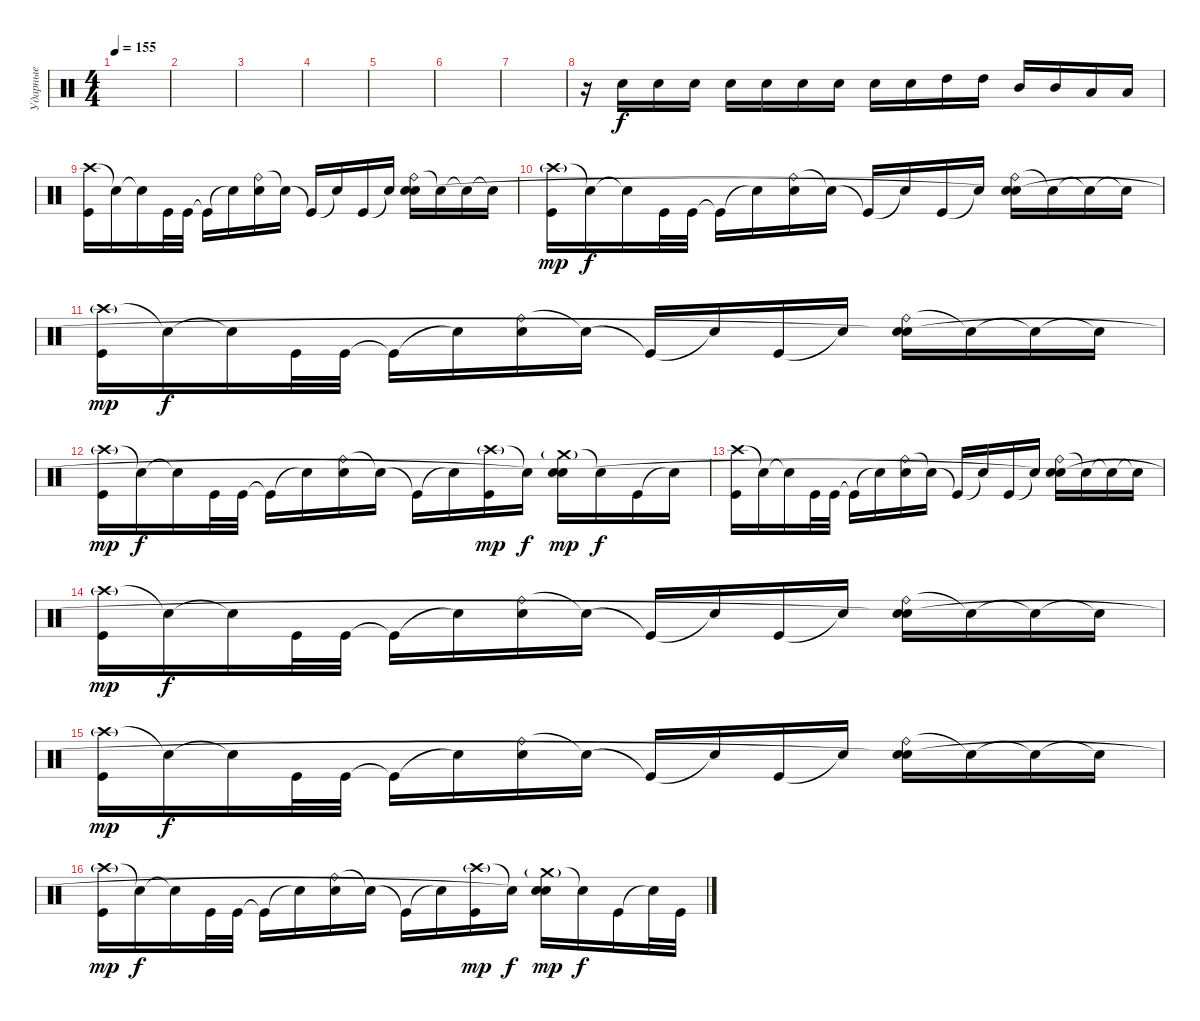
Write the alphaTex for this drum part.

\track ("Ударные" "Ударные") {instrument percussion}
\staff {score}
\articulation defaults
\ts (4 4)
\tempo 155
\clef neutral
\ks c
|
|
|
|
|
|
|
r.16 "Electric Snare (hit)".16 "Electric Snare (hit)".16 "Electric Snare (hit)".16 "Electric Snare (hit)".16 "Electric Snare (hit)".16 "Electric Snare (hit)".16 "Electric Snare (hit)".16 "Electric Snare (hit)".16 "Electric Snare (hit)".16 "High Tom (hit)".16 "High Tom (hit)".16 "Mid Tom (hit)".16 "Mid Tom (hit)".16 "Low Tom (hit)".16 "Low Tom (hit)".16 |
("Crash high (hit)" "Kick (hit)").16 "Snare (hit)"{t}.16 "Snare (hit)"{t}.16 "Kick (hit)".32 "Kick (hit)".32 "Kick (hit)"{t}.16 "Snare (hit)"{t}.16 ("Ride (bell)" "Electric Snare (hit)").16 "Snare (hit)"{t}.16 "Kick (hit)"{t}.16 "Snare (hit)"{t}.16 "Kick (hit)".16 "Snare (hit)"{t}.16 ("Ride (bell)" "Electric Snare (hit)" "Snare (hit)").16 "Snare (hit)"{t}.16 "Snare (hit)"{t}.16 "Snare (hit)"{t}.16 |
("Crash high (hit)"{g} "Kick (hit)").16{dy mp} "Snare (hit)"{t}.16{dy f} "Snare (hit)"{t}.16 "Kick (hit)".32 "Kick (hit)".32 "Kick (hit)"{t}.16 "Snare (hit)"{t}.16 ("Ride (bell)" "Electric Snare (hit)").16 "Snare (hit)"{t}.16 "Kick (hit)"{t}.16 "Snare (hit)"{t}.16 "Kick (hit)".16 "Snare (hit)"{t}.16 ("Ride (bell)" "Electric Snare (hit)" "Snare (hit)"{t}).16 "Snare (hit)"{t}.16 "Snare (hit)"{t}.16 "Snare (hit)"{t}.16 |
("Crash high (hit)"{g} "Kick (hit)").16{dy mp} "Snare (hit)"{t}.16{dy f} "Snare (hit)"{t}.16 "Kick (hit)".32 "Kick (hit)".32 "Kick (hit)"{t}.16 "Snare (hit)"{t}.16 ("Ride (bell)" "Electric Snare (hit)").16 "Snare (hit)"{t}.16 "Kick (hit)"{t}.16 "Snare (hit)"{t}.16 "Kick (hit)".16 "Snare (hit)"{t}.16 ("Ride (bell)" "Electric Snare (hit)" "Snare (hit)"{t}).16 "Snare (hit)"{t}.16 "Snare (hit)"{t}.16 "Snare (hit)"{t}.16 |
("Crash high (hit)"{g} "Kick (hit)").16{dy mp} "Snare (hit)"{t}.16{dy f} "Snare (hit)"{t}.16 "Kick (hit)".32 "Kick (hit)".32 "Kick (hit)"{t}.16 "Snare (hit)"{t}.16 ("Ride (bell)" "Electric Snare (hit)").16 "Snare (hit)"{t}.16 "Kick (hit)"{t}.16 "Snare (hit)"{t}.16 ("Crash high (hit)"{g} "Kick (hit)").16{dy mp} "Snare (hit)"{t}.16{dy f} ("Crash medium (hit)"{g} "Electric Snare (hit)" "Snare (hit)"{t}).16{dy mp} "Snare (hit)"{t}.16{dy f} "Kick (hit)".16 "Snare (hit)"{t}.16 |
("Crash high (hit)" "Kick (hit)").16 "Snare (hit)"{t}.16 "Snare (hit)"{t}.16 "Kick (hit)".32 "Kick (hit)".32 "Kick (hit)"{t}.16 "Snare (hit)"{t}.16 ("Ride (bell)" "Electric Snare (hit)").16 "Snare (hit)"{t}.16 "Kick (hit)"{t}.16 "Snare (hit)"{t}.16 "Kick (hit)".16 "Snare (hit)"{t}.16 ("Ride (bell)" "Electric Snare (hit)" "Snare (hit)"{t}).16 "Snare (hit)"{t}.16 "Snare (hit)"{t}.16 "Snare (hit)"{t}.16 |
("Crash high (hit)"{g} "Kick (hit)").16{dy mp} "Snare (hit)"{t}.16{dy f} "Snare (hit)"{t}.16 "Kick (hit)".32 "Kick (hit)".32 "Kick (hit)"{t}.16 "Snare (hit)"{t}.16 ("Ride (bell)" "Electric Snare (hit)").16 "Snare (hit)"{t}.16 "Kick (hit)"{t}.16 "Snare (hit)"{t}.16 "Kick (hit)".16 "Snare (hit)"{t}.16 ("Ride (bell)" "Electric Snare (hit)" "Snare (hit)"{t}).16 "Snare (hit)"{t}.16 "Snare (hit)"{t}.16 "Snare (hit)"{t}.16 |
("Crash high (hit)"{g} "Kick (hit)").16{dy mp} "Snare (hit)"{t}.16{dy f} "Snare (hit)"{t}.16 "Kick (hit)".32 "Kick (hit)".32 "Kick (hit)"{t}.16 "Snare (hit)"{t}.16 ("Ride (bell)" "Electric Snare (hit)").16 "Snare (hit)"{t}.16 "Kick (hit)"{t}.16 "Snare (hit)"{t}.16 "Kick (hit)".16 "Snare (hit)"{t}.16 ("Ride (bell)" "Electric Snare (hit)" "Snare (hit)"{t}).16 "Snare (hit)"{t}.16 "Snare (hit)"{t}.16 "Snare (hit)"{t}.16 |
("Crash high (hit)"{g} "Kick (hit)").16{dy mp} "Snare (hit)"{t}.16{dy f} "Snare (hit)"{t}.16 "Kick (hit)".32 "Kick (hit)".32 "Kick (hit)"{t}.16 "Snare (hit)"{t}.16 ("Ride (bell)" "Electric Snare (hit)").16 "Snare (hit)"{t}.16 "Kick (hit)"{t}.16 "Snare (hit)"{t}.16 ("Crash high (hit)"{g} "Kick (hit)").16{dy mp} "Snare (hit)"{t}.16{dy f} ("Crash medium (hit)"{g} "Electric Snare (hit)" "Snare (hit)"{t}).16{dy mp} "Snare (hit)"{t}.16{dy f} "Kick (hit)".16 "Snare (hit)"{t}.32 "Kick (hit)".32
